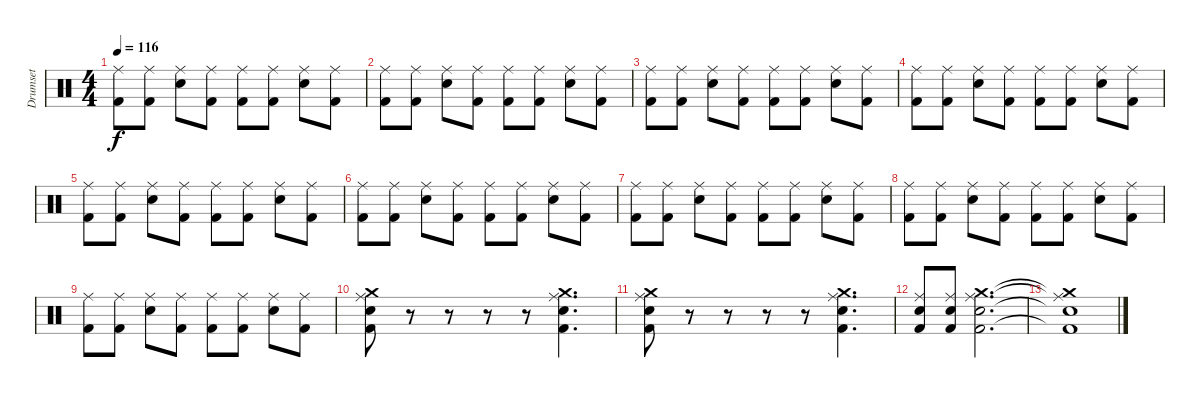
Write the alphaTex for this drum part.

\track ("Drumset" "Drumset") {instrument percussion}
\staff {score}
\articulation defaults
\ts (4 4)
\tempo 116
\clef neutral
\ks c
("Kick (hit) 2" "Ride (middle)").8{dy f} ("Kick (hit) 2" "Ride (middle)").8 ("Electric Snare (hit)" "Ride (middle)").8 ("Kick (hit) 2" "Ride (middle)").8 ("Kick (hit) 2" "Ride (middle)").8 ("Kick (hit) 2" "Ride (middle)").8 ("Electric Snare (hit)" "Ride (middle)").8 ("Kick (hit) 2" "Ride (middle)").8 |
("Kick (hit) 2" "Ride (middle)").8 ("Kick (hit) 2" "Ride (middle)").8 ("Electric Snare (hit)" "Ride (middle)").8 ("Kick (hit) 2" "Ride (middle)").8 ("Kick (hit) 2" "Ride (middle)").8 ("Kick (hit) 2" "Ride (middle)").8 ("Electric Snare (hit)" "Ride (middle)").8 ("Kick (hit) 2" "Ride (middle)").8 |
("Kick (hit) 2" "Ride (middle)").8 ("Kick (hit) 2" "Ride (middle)").8 ("Electric Snare (hit)" "Ride (middle)").8 ("Kick (hit) 2" "Ride (middle)").8 ("Kick (hit) 2" "Ride (middle)").8 ("Kick (hit) 2" "Ride (middle)").8 ("Electric Snare (hit)" "Ride (middle)").8 ("Kick (hit) 2" "Ride (middle)").8 |
("Kick (hit) 2" "Ride (middle)").8 ("Kick (hit) 2" "Ride (middle)").8 ("Electric Snare (hit)" "Ride (middle)").8 ("Kick (hit) 2" "Ride (middle)").8 ("Kick (hit) 2" "Ride (middle)").8 ("Kick (hit) 2" "Ride (middle)").8 ("Electric Snare (hit)" "Ride (middle)").8 ("Kick (hit) 2" "Ride (middle)").8 |
("Kick (hit) 2" "Ride (middle)").8 ("Kick (hit) 2" "Ride (middle)").8 ("Electric Snare (hit)" "Ride (middle)").8 ("Kick (hit) 2" "Ride (middle)").8 ("Kick (hit) 2" "Ride (middle)").8 ("Kick (hit) 2" "Ride (middle)").8 ("Electric Snare (hit)" "Ride (middle)").8 ("Kick (hit) 2" "Ride (middle)").8 |
("Kick (hit) 2" "Ride (middle)").8 ("Kick (hit) 2" "Ride (middle)").8 ("Electric Snare (hit)" "Ride (middle)").8 ("Kick (hit) 2" "Ride (middle)").8 ("Kick (hit) 2" "Ride (middle)").8 ("Kick (hit) 2" "Ride (middle)").8 ("Electric Snare (hit)" "Ride (middle)").8 ("Kick (hit) 2" "Ride (middle)").8 |
("Kick (hit) 2" "Ride (middle)").8 ("Kick (hit) 2" "Ride (middle)").8 ("Electric Snare (hit)" "Ride (middle)").8 ("Kick (hit) 2" "Ride (middle)").8 ("Kick (hit) 2" "Ride (middle)").8 ("Kick (hit) 2" "Ride (middle)").8 ("Electric Snare (hit)" "Ride (middle)").8 ("Kick (hit) 2" "Ride (middle)").8 |
("Kick (hit) 2" "Ride (middle)").8 ("Kick (hit) 2" "Ride (middle)").8 ("Electric Snare (hit)" "Ride (middle)").8 ("Kick (hit) 2" "Ride (middle)").8 ("Kick (hit) 2" "Ride (middle)").8 ("Kick (hit) 2" "Ride (middle)").8 ("Electric Snare (hit)" "Ride (middle)").8 ("Kick (hit) 2" "Ride (middle)").8 |
("Kick (hit) 2" "Ride (middle)").8 ("Kick (hit) 2" "Ride (middle)").8 ("Electric Snare (hit)" "Ride (middle)").8 ("Kick (hit) 2" "Ride (middle)").8 ("Kick (hit) 2" "Ride (middle)").8 ("Kick (hit) 2" "Ride (middle)").8 ("Electric Snare (hit)" "Ride (middle)").8 ("Kick (hit) 2" "Ride (middle)").8 |
("Kick (hit) 2" "Electric Snare (hit)" "Ride (middle)" "Crash medium (hit)").8 r.8 r.8 r.8 r.8 ("Kick (hit) 2" "Electric Snare (hit)" "Ride (middle)" "Crash medium (hit)").4{d} |
("Kick (hit) 2" "Electric Snare (hit)" "Ride (middle)" "Crash medium (hit)").8 r.8 r.8 r.8 r.8 ("Kick (hit) 2" "Electric Snare (hit)" "Ride (middle)" "Crash medium (hit)").4{d} |
("Electric Snare (hit)" "Kick (hit) 2" "Ride (middle)").8 ("Electric Snare (hit)" "Kick (hit) 2" "Ride (middle)").8 ("Crash medium (hit)" "Ride (middle)" "Electric Snare (hit)" "Kick (hit) 2").2{d} |
("Crash medium (hit)"{t} "Ride (middle)"{t} "Electric Snare (hit)"{t} "Kick (hit) 2"{t}).1
